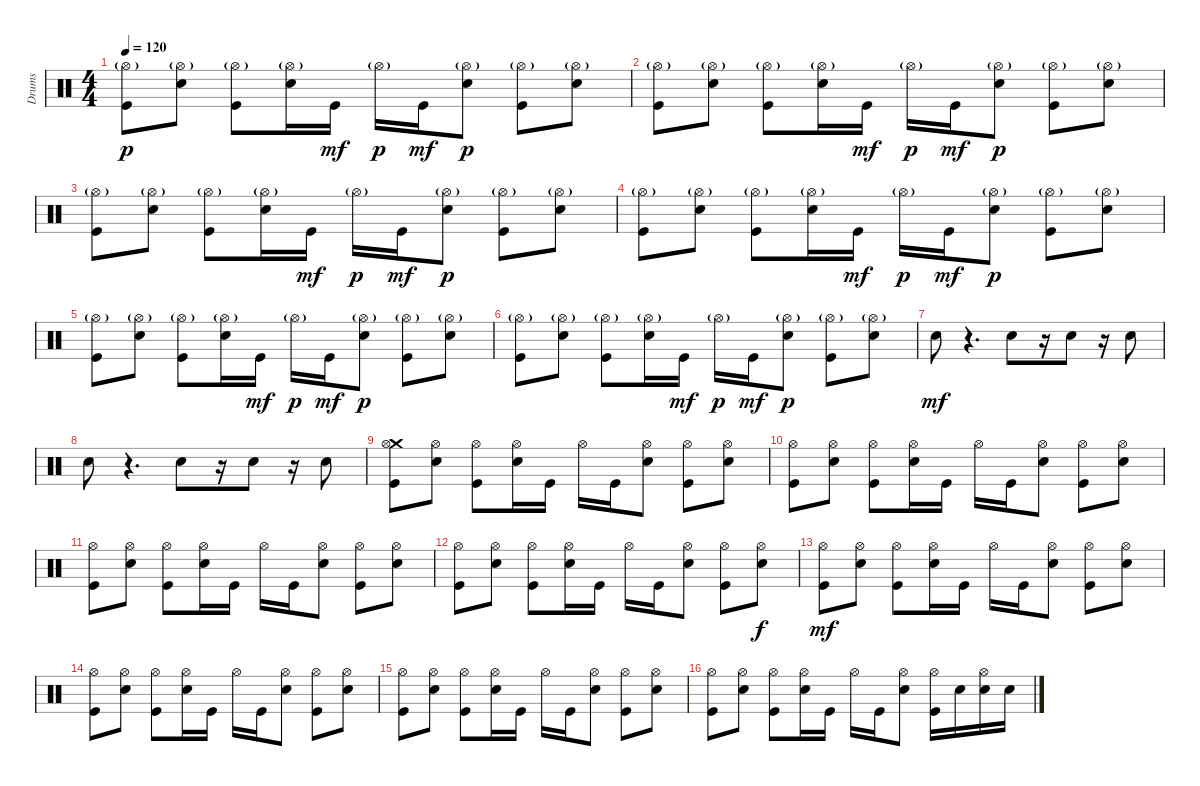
\track ("Drums" "Drums") {instrument percussion}
\staff {score}
\articulation defaults
\ts (4 4)
\tempo 120
\clef neutral
\ks c
("Kick (hit)" "Hi-Hat (open)"{g}).8{dy p} ("Electric Snare (hit)" "Hi-Hat (open)"{g}).8 ("Kick (hit)" "Hi-Hat (open)"{g}).8 ("Electric Snare (hit)" "Hi-Hat (open)"{g}).16 "Kick (hit)".16{dy mf} "Hi-Hat (open)"{g}.16{dy p} "Kick (hit)".16{dy mf} ("Electric Snare (hit)" "Hi-Hat (open)"{g}).8{dy p} ("Kick (hit)" "Hi-Hat (open)"{g}).8 ("Electric Snare (hit)" "Hi-Hat (open)"{g}).8 |
("Kick (hit)" "Hi-Hat (open)"{g}).8 ("Electric Snare (hit)" "Hi-Hat (open)"{g}).8 ("Kick (hit)" "Hi-Hat (open)"{g}).8 ("Electric Snare (hit)" "Hi-Hat (open)"{g}).16 "Kick (hit)".16{dy mf} "Hi-Hat (open)"{g}.16{dy p} "Kick (hit)".16{dy mf} ("Electric Snare (hit)" "Hi-Hat (open)"{g}).8{dy p} ("Kick (hit)" "Hi-Hat (open)"{g}).8 ("Electric Snare (hit)" "Hi-Hat (open)"{g}).8 |
("Kick (hit)" "Hi-Hat (open)"{g}).8 ("Electric Snare (hit)" "Hi-Hat (open)"{g}).8 ("Kick (hit)" "Hi-Hat (open)"{g}).8 ("Electric Snare (hit)" "Hi-Hat (open)"{g}).16 "Kick (hit)".16{dy mf} "Hi-Hat (open)"{g}.16{dy p} "Kick (hit)".16{dy mf} ("Electric Snare (hit)" "Hi-Hat (open)"{g}).8{dy p} ("Kick (hit)" "Hi-Hat (open)"{g}).8 ("Electric Snare (hit)" "Hi-Hat (open)"{g}).8 |
("Kick (hit)" "Hi-Hat (open)"{g}).8 ("Electric Snare (hit)" "Hi-Hat (open)"{g}).8 ("Kick (hit)" "Hi-Hat (open)"{g}).8 ("Electric Snare (hit)" "Hi-Hat (open)"{g}).16 "Kick (hit)".16{dy mf} "Hi-Hat (open)"{g}.16{dy p} "Kick (hit)".16{dy mf} ("Electric Snare (hit)" "Hi-Hat (open)"{g}).8{dy p} ("Kick (hit)" "Hi-Hat (open)"{g}).8 ("Electric Snare (hit)" "Hi-Hat (open)"{g}).8 |
("Kick (hit)" "Hi-Hat (open)"{g}).8 ("Electric Snare (hit)" "Hi-Hat (open)"{g}).8 ("Kick (hit)" "Hi-Hat (open)"{g}).8 ("Electric Snare (hit)" "Hi-Hat (open)"{g}).16 "Kick (hit)".16{dy mf} "Hi-Hat (open)"{g}.16{dy p} "Kick (hit)".16{dy mf} ("Electric Snare (hit)" "Hi-Hat (open)"{g}).8{dy p} ("Kick (hit)" "Hi-Hat (open)"{g}).8 ("Electric Snare (hit)" "Hi-Hat (open)"{g}).8 |
("Kick (hit)" "Hi-Hat (open)"{g}).8 ("Electric Snare (hit)" "Hi-Hat (open)"{g}).8 ("Kick (hit)" "Hi-Hat (open)"{g}).8 ("Electric Snare (hit)" "Hi-Hat (open)"{g}).16 "Kick (hit)".16{dy mf} "Hi-Hat (open)"{g}.16{dy p} "Kick (hit)".16{dy mf} ("Electric Snare (hit)" "Hi-Hat (open)"{g}).8{dy p} ("Kick (hit)" "Hi-Hat (open)"{g}).8 ("Electric Snare (hit)" "Hi-Hat (open)"{g}).8 |
"Electric Snare (hit)".8{dy mf} r.4{d} "Electric Snare (hit)".8 r.16 "Electric Snare (hit)".8 r.16 "Electric Snare (hit)".8 |
"Electric Snare (hit)".8 r.4{d} "Electric Snare (hit)".8 r.16 "Electric Snare (hit)".8 r.16 "Electric Snare (hit)".8 |
("Kick (hit)" "Crash medium (hit)" "Hi-Hat (open)").8 ("Electric Snare (hit)" "Hi-Hat (open)").8 ("Kick (hit)" "Hi-Hat (open)").8 ("Electric Snare (hit)" "Hi-Hat (open)").16 "Kick (hit)".16 "Hi-Hat (open)".16 "Kick (hit)".16 ("Electric Snare (hit)" "Hi-Hat (open)").8 ("Kick (hit)" "Hi-Hat (open)").8 ("Electric Snare (hit)" "Hi-Hat (open)").8 |
("Kick (hit)" "Hi-Hat (open)").8 ("Electric Snare (hit)" "Hi-Hat (open)").8 ("Kick (hit)" "Hi-Hat (open)").8 ("Electric Snare (hit)" "Hi-Hat (open)").16 "Kick (hit)".16 "Hi-Hat (open)".16 "Kick (hit)".16 ("Electric Snare (hit)" "Hi-Hat (open)").8 ("Kick (hit)" "Hi-Hat (open)").8 ("Electric Snare (hit)" "Hi-Hat (open)").8 |
("Kick (hit)" "Hi-Hat (open)").8 ("Electric Snare (hit)" "Hi-Hat (open)").8 ("Kick (hit)" "Hi-Hat (open)").8 ("Electric Snare (hit)" "Hi-Hat (open)").16 "Kick (hit)".16 "Hi-Hat (open)".16 "Kick (hit)".16 ("Electric Snare (hit)" "Hi-Hat (open)").8 ("Kick (hit)" "Hi-Hat (open)").8 ("Electric Snare (hit)" "Hi-Hat (open)").8 |
("Kick (hit)" "Hi-Hat (open)").8 ("Electric Snare (hit)" "Hi-Hat (open)").8 ("Kick (hit)" "Hi-Hat (open)").8 ("Electric Snare (hit)" "Hi-Hat (open)").16 "Kick (hit)".16 "Hi-Hat (open)".16 "Kick (hit)".16 ("Electric Snare (hit)" "Hi-Hat (open)").8 ("Kick (hit)" "Hi-Hat (open)").8 ("Electric Snare (hit)" "Hi-Hat (open)").8{dy f} |
("Kick (hit)" "Hi-Hat (open)").8{dy mf} ("Electric Snare (hit)" "Hi-Hat (open)").8 ("Kick (hit)" "Hi-Hat (open)").8 ("Electric Snare (hit)" "Hi-Hat (open)").16 "Kick (hit)".16 "Hi-Hat (open)".16 "Kick (hit)".16 ("Electric Snare (hit)" "Hi-Hat (open)").8 ("Kick (hit)" "Hi-Hat (open)").8 ("Electric Snare (hit)" "Hi-Hat (open)").8 |
("Kick (hit)" "Hi-Hat (open)").8 ("Electric Snare (hit)" "Hi-Hat (open)").8 ("Kick (hit)" "Hi-Hat (open)").8 ("Electric Snare (hit)" "Hi-Hat (open)").16 "Kick (hit)".16 "Hi-Hat (open)".16 "Kick (hit)".16 ("Electric Snare (hit)" "Hi-Hat (open)").8 ("Kick (hit)" "Hi-Hat (open)").8 ("Electric Snare (hit)" "Hi-Hat (open)").8 |
("Kick (hit)" "Hi-Hat (open)").8 ("Electric Snare (hit)" "Hi-Hat (open)").8 ("Kick (hit)" "Hi-Hat (open)").8 ("Electric Snare (hit)" "Hi-Hat (open)").16 "Kick (hit)".16 "Hi-Hat (open)".16 "Kick (hit)".16 ("Electric Snare (hit)" "Hi-Hat (open)").8 ("Kick (hit)" "Hi-Hat (open)").8 ("Electric Snare (hit)" "Hi-Hat (open)").8 |
("Kick (hit)" "Hi-Hat (open)").8 ("Electric Snare (hit)" "Hi-Hat (open)").8 ("Kick (hit)" "Hi-Hat (open)").8 ("Electric Snare (hit)" "Hi-Hat (open)").16 "Kick (hit)".16 "Hi-Hat (open)".16 "Kick (hit)".16 ("Electric Snare (hit)" "Hi-Hat (open)").8 ("Kick (hit)" "Hi-Hat (open)").16 "Electric Snare (hit)".16 ("Electric Snare (hit)" "Hi-Hat (open)").16 "Electric Snare (hit)".16
